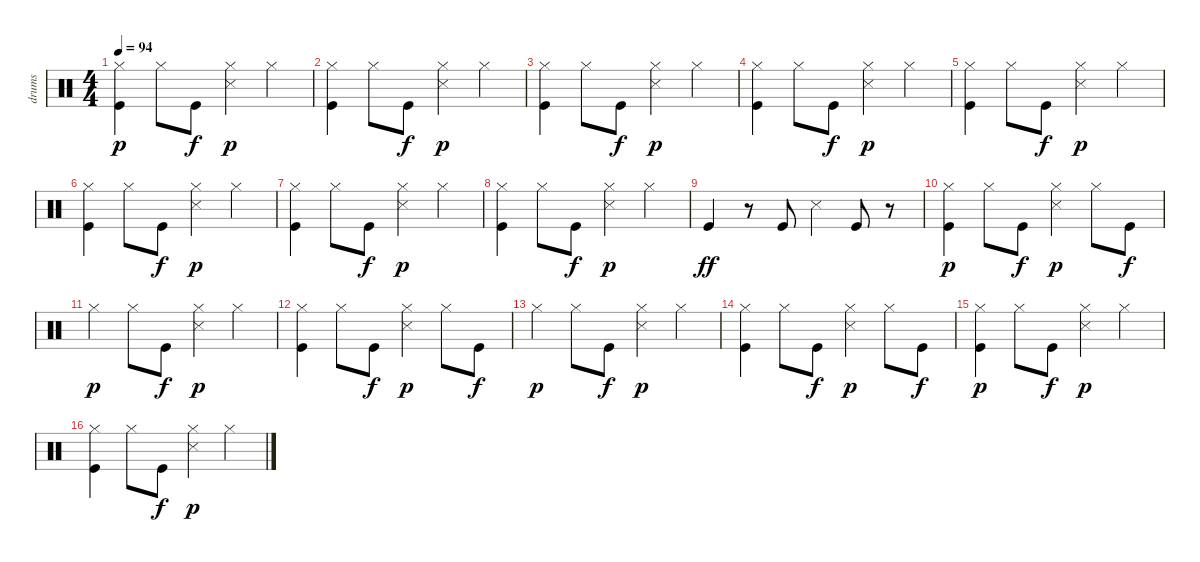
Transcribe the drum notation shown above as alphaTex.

\track ("drums" "drums") {instrument percussion}
\staff {score}
\articulation defaults
\ts (4 4)
\tempo 94
\clef neutral
\ks c
("Kick (hit)" "Hi-Hat (closed)").4{dy p} "Hi-Hat (closed)".8 "Kick (hit)".8{dy f} ("Hi-Hat (closed)" "Snare (side stick) 3").4{dy p} "Hi-Hat (closed)".4 |
("Kick (hit)" "Hi-Hat (closed)").4 "Hi-Hat (closed)".8 "Kick (hit)".8{dy f} ("Hi-Hat (closed)" "Snare (side stick) 3").4{dy p} "Hi-Hat (closed)".4 |
("Kick (hit)" "Hi-Hat (closed)").4 "Hi-Hat (closed)".8 "Kick (hit)".8{dy f} ("Hi-Hat (closed)" "Snare (side stick) 3").4{dy p} "Hi-Hat (closed)".4 |
("Kick (hit)" "Hi-Hat (closed)").4 "Hi-Hat (closed)".8 "Kick (hit)".8{dy f} ("Hi-Hat (closed)" "Snare (side stick) 3").4{dy p} "Hi-Hat (closed)".4 |
("Kick (hit)" "Hi-Hat (closed)").4 "Hi-Hat (closed)".8 "Kick (hit)".8{dy f} ("Hi-Hat (closed)" "Snare (side stick) 3").4{dy p} "Hi-Hat (closed)".4 |
("Kick (hit)" "Hi-Hat (closed)").4 "Hi-Hat (closed)".8 "Kick (hit)".8{dy f} ("Hi-Hat (closed)" "Snare (side stick) 3").4{dy p} "Hi-Hat (closed)".4 |
("Kick (hit)" "Hi-Hat (closed)").4 "Hi-Hat (closed)".8 "Kick (hit)".8{dy f} ("Hi-Hat (closed)" "Snare (side stick) 3").4{dy p} "Hi-Hat (closed)".4 |
("Kick (hit)" "Hi-Hat (closed)").4 "Hi-Hat (closed)".8 "Kick (hit)".8{dy f} ("Hi-Hat (closed)" "Snare (side stick) 3").4{dy p} "Hi-Hat (closed)".4 |
"Kick (hit)".4{dy ff} r.8 "Kick (hit)".8 "Snare (side stick) 3".4 "Kick (hit)".8 r.8 |
("Kick (hit)" "Hi-Hat (closed)").4{dy p} "Hi-Hat (closed)".8 "Kick (hit)".8{dy f} ("Hi-Hat (closed)" "Snare (side stick) 3").4{dy p} "Hi-Hat (closed)".8 "Kick (hit)".8{dy f} |
"Hi-Hat (closed)".4{dy p} "Hi-Hat (closed)".8 "Kick (hit)".8{dy f} ("Hi-Hat (closed)" "Snare (side stick) 3").4{dy p} "Hi-Hat (closed)".4 |
("Kick (hit)" "Hi-Hat (closed)").4 "Hi-Hat (closed)".8 "Kick (hit)".8{dy f} ("Hi-Hat (closed)" "Snare (side stick) 3").4{dy p} "Hi-Hat (closed)".8 "Kick (hit)".8{dy f} |
"Hi-Hat (closed)".4{dy p} "Hi-Hat (closed)".8 "Kick (hit)".8{dy f} ("Hi-Hat (closed)" "Snare (side stick) 3").4{dy p} "Hi-Hat (closed)".4 |
("Kick (hit)" "Hi-Hat (closed)").4 "Hi-Hat (closed)".8 "Kick (hit)".8{dy f} ("Hi-Hat (closed)" "Snare (side stick) 3").4{dy p} "Hi-Hat (closed)".8 "Kick (hit)".8{dy f} |
("Kick (hit)" "Hi-Hat (closed)").4{dy p} "Hi-Hat (closed)".8 "Kick (hit)".8{dy f} ("Hi-Hat (closed)" "Snare (side stick) 3").4{dy p} "Hi-Hat (closed)".4 |
("Kick (hit)" "Hi-Hat (closed)").4 "Hi-Hat (closed)".8 "Kick (hit)".8{dy f} ("Hi-Hat (closed)" "Snare (side stick) 3").4{dy p} "Hi-Hat (closed)".4
